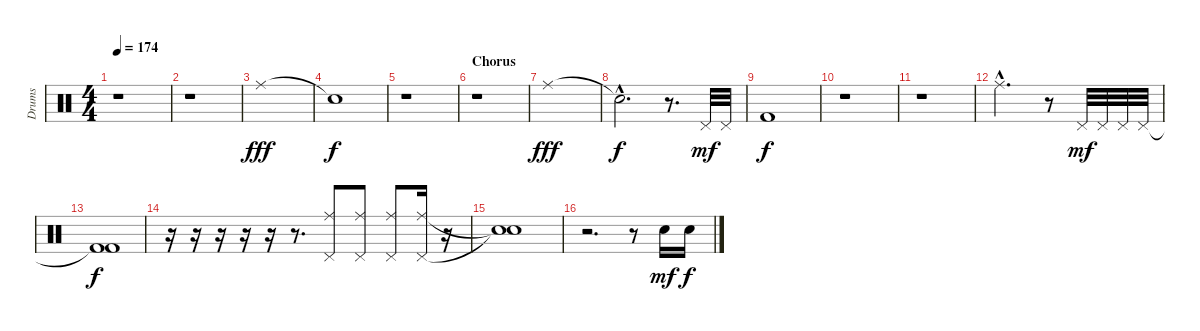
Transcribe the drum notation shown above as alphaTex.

\track ("Drums" "Drums") {instrument percussion}
\staff {score}
\articulation defaults
\ts (4 4)
\tempo 174
\clef neutral
\ks c
r.1{dy f} |
r.1 |
"Ride (middle)".1{dy fff} |
"Snare (hit)"{t}.1{dy f} |
r.1 |
\section ("" "Chorus")
r.1 |
"Ride (middle)".1{dy fff} |
"Snare (hit)"{hac t}.2{d dy f} r.8{d} "Pedal Hi-Hat (hit)".32{dy mf} "Pedal Hi-Hat (hit)".32 |
"Kick (hit) 2".1{dy f} |
r.1 |
r.1 |
"Ride (middle)"{hac}.2{d} r.8 "Pedal Hi-Hat (hit)".32{dy mf} "Pedal Hi-Hat (hit)".32 "Pedal Hi-Hat (hit)".32 "Pedal Hi-Hat (hit)".32 |
("Kick (hit) 2"{t} "Kick (hit) 2").1{dy f} |
r.16 r.16 r.16 r.16 r.16 r.8{d} ("Pedal Hi-Hat (hit)" "Ride (middle)").8 ("Pedal Hi-Hat (hit)" "Ride (middle)").8 ("Pedal Hi-Hat (hit)" "Ride (middle)").8 ("Pedal Hi-Hat (hit)" "Ride (middle)").16 r.16 |
("Snare (hit)"{t} "Snare (hit)"{t}).1 |
r.2{d} r.8 "Snare (hit) 2".16{dy mf} "Snare (hit) 2".16{dy f}
